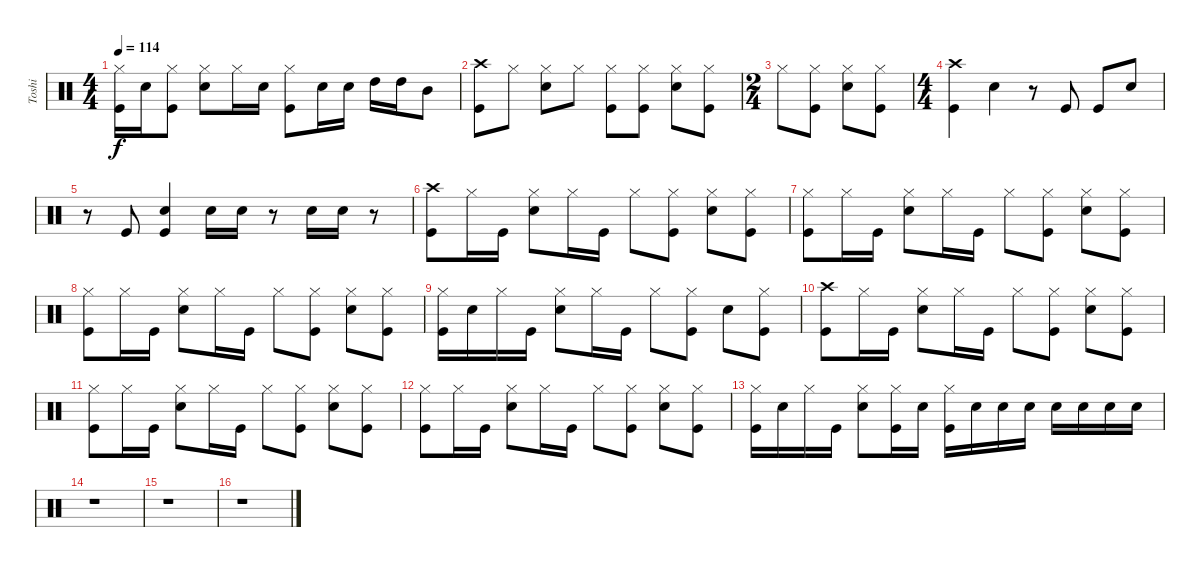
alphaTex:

\track ("Toshi" "Toshi") {instrument percussion}
\staff {score}
\articulation defaults
\ts (4 4)
\tempo 114
\clef neutral
\ks c
("Hi-Hat (closed)" "Kick (hit)").16{dy f} "Snare (hit) 2".16 ("Hi-Hat (closed)" "Kick (hit)").8 ("Hi-Hat (closed)" "Snare (hit) 2").8 "Hi-Hat (closed)".16 "Snare (hit) 2".16 ("Hi-Hat (closed)" "Kick (hit)").8 "Snare (hit) 2".16 "Snare (hit) 2".16 "High Tom (hit)".16 "High Tom (hit)".16 "Mid Tom (hit)".8 |
("Crash high (hit)" "Kick (hit)").8 "Hi-Hat (closed)".8 ("Hi-Hat (closed)" "Snare (hit) 2").8 "Hi-Hat (closed)".8 ("Hi-Hat (closed)" "Kick (hit)").8 ("Hi-Hat (closed)" "Kick (hit)").8 ("Hi-Hat (closed)" "Snare (hit) 2").8 ("Hi-Hat (closed)" "Kick (hit)").8 |
\ts (2 4)
"Hi-Hat (closed)".8 ("Hi-Hat (closed)" "Kick (hit)").8 ("Hi-Hat (closed)" "Snare (hit) 2").8 ("Hi-Hat (closed)" "Kick (hit)").8 |
\ts (4 4)
("Crash high (hit)" "Kick (hit)").4 "Snare (hit) 2".4 r.8 "Kick (hit)".8 "Kick (hit)".8 "Snare (hit) 2".8 |
r.8 "Kick (hit)".8 ("Snare (hit) 2" "Kick (hit)").4 "Snare (hit) 2".16 "Snare (hit) 2".16 r.8 "Snare (hit) 2".16 "Snare (hit) 2".16 r.8 |
("Crash high (hit)" "Kick (hit)").8 "Hi-Hat (closed)".16 "Kick (hit)".16 ("Hi-Hat (closed)" "Snare (hit) 2").8 "Hi-Hat (closed)".16 "Kick (hit)".16 "Hi-Hat (closed)".8 ("Hi-Hat (closed)" "Kick (hit)").8 ("Hi-Hat (closed)" "Snare (hit) 2").8 ("Hi-Hat (closed)" "Kick (hit)").8 |
("Hi-Hat (closed)" "Kick (hit)").8 "Hi-Hat (closed)".16 "Kick (hit)".16 ("Hi-Hat (closed)" "Snare (hit) 2").8 "Hi-Hat (closed)".16 "Kick (hit)".16 "Hi-Hat (closed)".8 ("Hi-Hat (closed)" "Kick (hit)").8 ("Hi-Hat (closed)" "Snare (hit) 2").8 ("Hi-Hat (closed)" "Kick (hit)").8 |
("Hi-Hat (closed)" "Kick (hit)").8 "Hi-Hat (closed)".16 "Kick (hit)".16 ("Hi-Hat (closed)" "Snare (hit) 2").8 "Hi-Hat (closed)".16 "Kick (hit)".16 "Hi-Hat (closed)".8 ("Hi-Hat (closed)" "Kick (hit)").8 ("Hi-Hat (closed)" "Snare (hit) 2").8 ("Hi-Hat (closed)" "Kick (hit)").8 |
("Hi-Hat (closed)" "Kick (hit)").16 "Snare (hit) 2".16 "Hi-Hat (closed)".16 "Kick (hit)".16 ("Hi-Hat (closed)" "Snare (hit) 2").8 "Hi-Hat (closed)".16 "Kick (hit)".16 "Hi-Hat (closed)".8 ("Hi-Hat (closed)" "Kick (hit)").8 "Snare (hit) 2".8 ("Hi-Hat (closed)" "Kick (hit)").8 |
("Crash high (hit)" "Kick (hit)").8 "Hi-Hat (closed)".16 "Kick (hit)".16 ("Hi-Hat (closed)" "Snare (hit) 2").8 "Hi-Hat (closed)".16 "Kick (hit)".16 "Hi-Hat (closed)".8 ("Hi-Hat (closed)" "Kick (hit)").8 ("Hi-Hat (closed)" "Snare (hit) 2").8 ("Hi-Hat (closed)" "Kick (hit)").8 |
("Hi-Hat (closed)" "Kick (hit)").8 "Hi-Hat (closed)".16 "Kick (hit)".16 ("Hi-Hat (closed)" "Snare (hit) 2").8 "Hi-Hat (closed)".16 "Kick (hit)".16 "Hi-Hat (closed)".8 ("Hi-Hat (closed)" "Kick (hit)").8 ("Hi-Hat (closed)" "Snare (hit) 2").8 ("Hi-Hat (closed)" "Kick (hit)").8 |
("Hi-Hat (closed)" "Kick (hit)").8 "Hi-Hat (closed)".16 "Kick (hit)".16 ("Hi-Hat (closed)" "Snare (hit) 2").8 "Hi-Hat (closed)".16 "Kick (hit)".16 "Hi-Hat (closed)".8 ("Hi-Hat (closed)" "Kick (hit)").8 ("Hi-Hat (closed)" "Snare (hit) 2").8 ("Hi-Hat (closed)" "Kick (hit)").8 |
("Hi-Hat (closed)" "Kick (hit)").16 "Snare (hit) 2".16 "Hi-Hat (closed)".16 "Kick (hit)".16 ("Hi-Hat (closed)" "Snare (hit) 2").8 ("Hi-Hat (closed)" "Kick (hit)").16 "Snare (hit) 2".16 ("Hi-Hat (closed)" "Kick (hit)").16 "Snare (hit) 2".16 "Snare (hit) 2".16 "Snare (hit) 2".16 "Snare (hit) 2".16 "Snare (hit) 2".16 "Snare (hit) 2".16 "Snare (hit) 2".16 |
r.1 |
r.1 |
r.1
